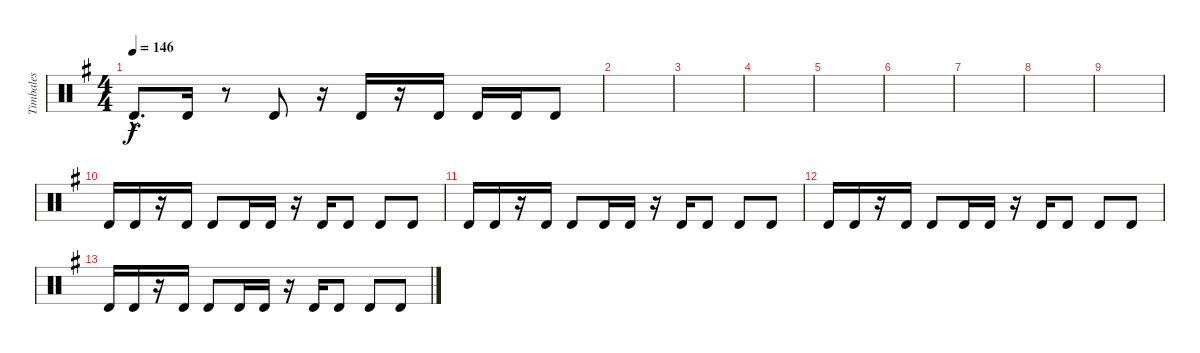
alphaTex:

\track ("Timbales" "Timbales") {instrument percussion}
\staff {score}
\articulation defaults
\ts (4 4)
\tempo 146
\clef neutral
\ks g "Timbale high (hit)"{hac}.8{d dy f} "Timbale high (hit)".16
r.8 "Timbale high (hit)".8 r.16 "Timbale high (hit)".16 r.16 "Timbale high (hit)".16 "Timbale high (hit)".16 "Timbale high (hit)".16 "Timbale high (hit)".8 |
|
|
|
|
|
|
|
|
"Timbale high (hit)".16 "Timbale high (hit)".16 r.16 "Timbale high (hit)".16 "Timbale high (hit)".8 "Timbale high (hit)".16 "Timbale high (hit)".16 r.16 "Timbale high (hit)".16 "Timbale high (hit)".8 "Timbale high (hit)".8 "Timbale high (hit)".8 |
"Timbale high (hit)".16 "Timbale high (hit)".16 r.16 "Timbale high (hit)".16 "Timbale high (hit)".8 "Timbale high (hit)".16 "Timbale high (hit)".16 r.16 "Timbale high (hit)".16 "Timbale high (hit)".8 "Timbale high (hit)".8 "Timbale high (hit)".8 |
"Timbale high (hit)".16 "Timbale high (hit)".16 r.16 "Timbale high (hit)".16 "Timbale high (hit)".8 "Timbale high (hit)".16 "Timbale high (hit)".16 r.16 "Timbale high (hit)".16 "Timbale high (hit)".8 "Timbale high (hit)".8 "Timbale high (hit)".8 |
"Timbale high (hit)".16 "Timbale high (hit)".16 r.16 "Timbale high (hit)".16 "Timbale high (hit)".8 "Timbale high (hit)".16 "Timbale high (hit)".16 r.16 "Timbale high (hit)".16 "Timbale high (hit)".8 "Timbale high (hit)".8 "Timbale high (hit)".8
